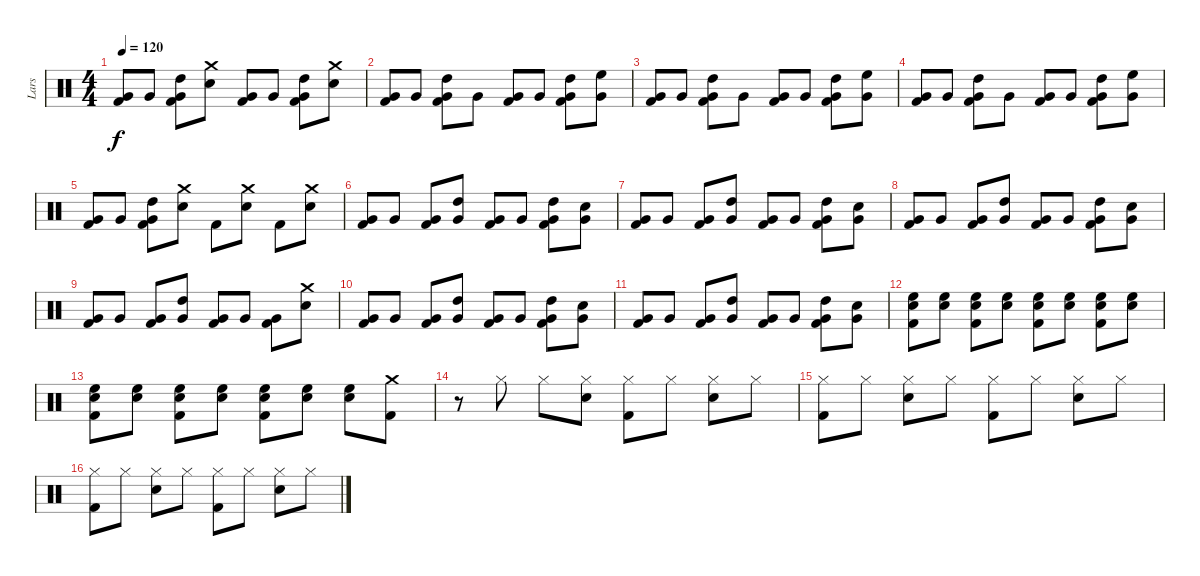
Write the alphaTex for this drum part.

\track ("Lars" "Lars") {instrument percussion}
\staff {score}
\articulation defaults
\ts (4 4)
\tempo 120
\clef neutral
\ks c
("Very Low Tom (hit)" "Kick (hit) 2").8{dy f} "Very Low Tom (hit)".8 ("High Tom (hit)" "Very Low Tom (hit)" "Kick (hit) 2").8 ("Snare (hit) 2" "Crash medium (hit)").8 ("Very Low Tom (hit)" "Kick (hit) 2").8 "Very Low Tom (hit)".8 ("High Tom (hit)" "Very Low Tom (hit)" "Kick (hit) 2").8 ("Snare (hit) 2" "Crash medium (hit)").8 |
("Very Low Tom (hit)" "Kick (hit) 2").8 "Very Low Tom (hit)".8 ("High Tom (hit)" "Very Low Tom (hit)" "Kick (hit) 2").8 "Very Low Tom (hit)".8 ("Very Low Tom (hit)" "Kick (hit) 2").8 "Very Low Tom (hit)".8 ("High Tom (hit)" "Very Low Tom (hit)" "Kick (hit) 2").8 ("High Floor Tom (hit)" "Very Low Tom (hit)").8 |
("Very Low Tom (hit)" "Kick (hit) 2").8 "Very Low Tom (hit)".8 ("High Tom (hit)" "Very Low Tom (hit)" "Kick (hit) 2").8 "Very Low Tom (hit)".8 ("Very Low Tom (hit)" "Kick (hit) 2").8 "Very Low Tom (hit)".8 ("High Tom (hit)" "Very Low Tom (hit)" "Kick (hit) 2").8 ("High Floor Tom (hit)" "Very Low Tom (hit)").8 |
("Very Low Tom (hit)" "Kick (hit) 2").8 "Very Low Tom (hit)".8 ("High Tom (hit)" "Very Low Tom (hit)" "Kick (hit) 2").8 "Very Low Tom (hit)".8 ("Very Low Tom (hit)" "Kick (hit) 2").8 "Very Low Tom (hit)".8 ("High Tom (hit)" "Very Low Tom (hit)" "Kick (hit) 2").8 ("High Floor Tom (hit)" "Very Low Tom (hit)").8 |
("Very Low Tom (hit)" "Kick (hit) 2").8 "Very Low Tom (hit)".8 ("High Tom (hit)" "Very Low Tom (hit)" "Kick (hit) 2").8 ("Crash medium (hit)" "Snare (hit) 2").8 "Kick (hit) 2".8 ("Crash medium (hit)" "Snare (hit) 2").8 "Kick (hit) 2".8 ("Crash medium (hit)" "Snare (hit) 2").8 |
("Kick (hit) 2" "Very Low Tom (hit)").8 "Very Low Tom (hit)".8 ("Kick (hit) 2" "Very Low Tom (hit)").8 ("High Tom (hit)" "Very Low Tom (hit)").8 ("Kick (hit) 2" "Very Low Tom (hit)").8 "Very Low Tom (hit)".8 ("Kick (hit) 2" "High Tom (hit)" "Very Low Tom (hit)").8 ("Snare (hit) 2" "Very Low Tom (hit)").8 |
("Kick (hit) 2" "Very Low Tom (hit)").8 "Very Low Tom (hit)".8 ("Kick (hit) 2" "Very Low Tom (hit)").8 ("High Tom (hit)" "Very Low Tom (hit)").8 ("Kick (hit) 2" "Very Low Tom (hit)").8 "Very Low Tom (hit)".8 ("Kick (hit) 2" "High Tom (hit)" "Very Low Tom (hit)").8 ("Snare (hit) 2" "Very Low Tom (hit)").8 |
("Kick (hit) 2" "Very Low Tom (hit)").8 "Very Low Tom (hit)".8 ("Kick (hit) 2" "Very Low Tom (hit)").8 ("High Tom (hit)" "Very Low Tom (hit)").8 ("Kick (hit) 2" "Very Low Tom (hit)").8 "Very Low Tom (hit)".8 ("Kick (hit) 2" "High Tom (hit)" "Very Low Tom (hit)").8 ("Snare (hit) 2" "Very Low Tom (hit)").8 |
("Very Low Tom (hit)" "Kick (hit) 2").8 "Very Low Tom (hit)".8 ("Very Low Tom (hit)" "Kick (hit) 2").8 ("High Tom (hit)" "Very Low Tom (hit)").8 ("Very Low Tom (hit)" "Kick (hit) 2").8 "Very Low Tom (hit)".8 ("Very Low Tom (hit)" "Kick (hit) 2").8 ("Crash medium (hit)" "Snare (hit) 2").8 |
("Kick (hit) 2" "Very Low Tom (hit)").8 "Very Low Tom (hit)".8 ("Kick (hit) 2" "Very Low Tom (hit)").8 ("High Tom (hit)" "Very Low Tom (hit)").8 ("Kick (hit) 2" "Very Low Tom (hit)").8 "Very Low Tom (hit)".8 ("Kick (hit) 2" "High Tom (hit)" "Very Low Tom (hit)").8 ("Snare (hit) 2" "Very Low Tom (hit)").8 |
("Kick (hit) 2" "Very Low Tom (hit)").8 "Very Low Tom (hit)".8 ("Kick (hit) 2" "Very Low Tom (hit)").8 ("High Tom (hit)" "Very Low Tom (hit)").8 ("Kick (hit) 2" "Very Low Tom (hit)").8 "Very Low Tom (hit)".8 ("Kick (hit) 2" "High Tom (hit)" "Very Low Tom (hit)").8 ("Snare (hit) 2" "Very Low Tom (hit)").8 |
("High Floor Tom (hit)" "Snare (hit) 2" "Kick (hit) 2").8 ("High Floor Tom (hit)" "Snare (hit) 2").8 ("High Floor Tom (hit)" "Snare (hit) 2" "Kick (hit) 2").8 ("High Floor Tom (hit)" "Snare (hit) 2").8 ("High Floor Tom (hit)" "Snare (hit) 2" "Kick (hit) 2").8 ("High Floor Tom (hit)" "Snare (hit) 2").8 ("High Floor Tom (hit)" "Snare (hit) 2" "Kick (hit) 2").8 ("High Floor Tom (hit)" "Snare (hit) 2").8 |
("High Floor Tom (hit)" "Snare (hit) 2" "Kick (hit) 2").8 ("High Floor Tom (hit)" "Snare (hit) 2").8 ("High Floor Tom (hit)" "Snare (hit) 2" "Kick (hit) 2").8 ("High Floor Tom (hit)" "Snare (hit) 2").8 ("High Floor Tom (hit)" "Snare (hit) 2" "Kick (hit) 2").8 ("High Floor Tom (hit)" "Snare (hit) 2").8 ("High Floor Tom (hit)" "Snare (hit) 2").8 ("Kick (hit) 2" "Crash medium (hit)").8 |
r.8 "Hi-Hat (closed)".8 "Hi-Hat (closed)".8 ("Snare (hit) 2" "Hi-Hat (closed)").8 ("Kick (hit) 2" "Hi-Hat (closed)").8 "Hi-Hat (closed)".8 ("Snare (hit) 2" "Hi-Hat (closed)").8 "Hi-Hat (closed)".8 |
("Kick (hit) 2" "Hi-Hat (closed)").8 "Hi-Hat (closed)".8 ("Snare (hit) 2" "Hi-Hat (closed)").8 "Hi-Hat (closed)".8 ("Kick (hit) 2" "Hi-Hat (closed)").8 "Hi-Hat (closed)".8 ("Snare (hit) 2" "Hi-Hat (closed)").8 "Hi-Hat (closed)".8 |
("Kick (hit) 2" "Hi-Hat (closed)").8 "Hi-Hat (closed)".8 ("Snare (hit) 2" "Hi-Hat (closed)").8 "Hi-Hat (closed)".8 ("Kick (hit) 2" "Hi-Hat (closed)").8 "Hi-Hat (closed)".8 ("Snare (hit) 2" "Hi-Hat (closed)").8 "Hi-Hat (closed)".8
